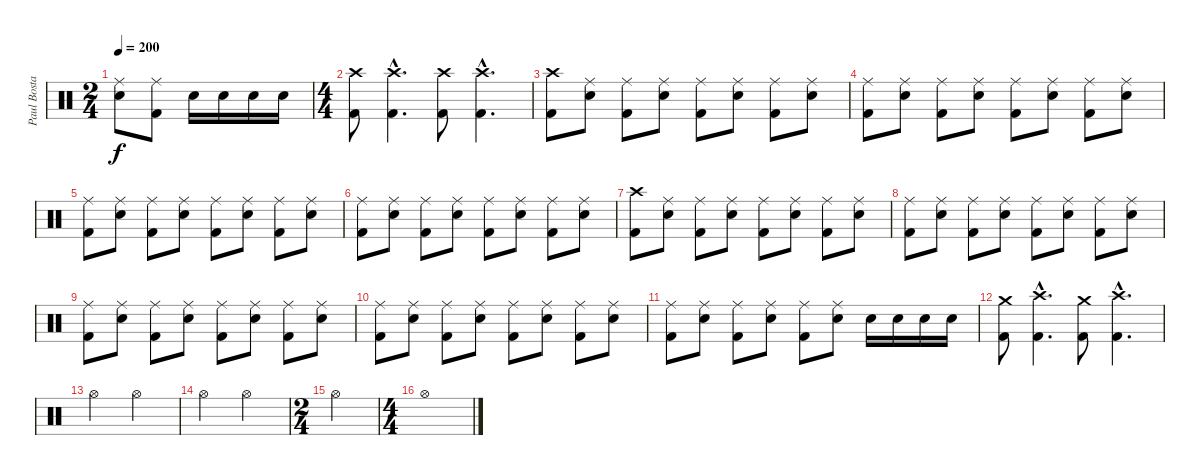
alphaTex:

\track ("Paul Bostaph" "Paul Bosta") {instrument percussion}
\staff {score}
\articulation defaults
\ts (2 4)
\tempo 200
\clef neutral
\ks c
("Electric Snare (hit)" "Ride (middle)").8{dy f} ("Kick (hit) 2" "Ride (middle)").8 "Electric Snare (hit)".16 "Electric Snare (hit)".16 "Electric Snare (hit)".16 "Electric Snare (hit)".16 |
\ts (4 4)
("Crash high (hit)" "Kick (hit) 2").8 ("Crash high (hit)"{hac} "Kick (hit) 2"{hac}).4{d} ("Crash high (hit)" "Kick (hit) 2").8 ("Crash high (hit)"{hac} "Kick (hit) 2"{hac}).4{d} |
("Kick (hit) 2" "Crash high (hit)").8 ("Electric Snare (hit)" "Ride (middle)").8 ("Kick (hit) 2" "Ride (middle)").8 ("Electric Snare (hit)" "Ride (middle)").8 ("Kick (hit) 2" "Ride (middle)").8 ("Electric Snare (hit)" "Ride (middle)").8 ("Kick (hit) 2" "Ride (middle)").8 ("Electric Snare (hit)" "Ride (middle)").8 |
("Kick (hit) 2" "Ride (middle)").8 ("Electric Snare (hit)" "Ride (middle)").8 ("Kick (hit) 2" "Ride (middle)").8 ("Electric Snare (hit)" "Ride (middle)").8 ("Kick (hit) 2" "Ride (middle)").8 ("Electric Snare (hit)" "Ride (middle)").8 ("Kick (hit) 2" "Ride (middle)").8 ("Electric Snare (hit)" "Ride (middle)").8 |
("Kick (hit) 2" "Ride (middle)").8 ("Electric Snare (hit)" "Ride (middle)").8 ("Kick (hit) 2" "Ride (middle)").8 ("Electric Snare (hit)" "Ride (middle)").8 ("Kick (hit) 2" "Ride (middle)").8 ("Electric Snare (hit)" "Ride (middle)").8 ("Kick (hit) 2" "Ride (middle)").8 ("Electric Snare (hit)" "Ride (middle)").8 |
("Kick (hit) 2" "Ride (middle)").8 ("Electric Snare (hit)" "Ride (middle)").8 ("Kick (hit) 2" "Ride (middle)").8 ("Electric Snare (hit)" "Ride (middle)").8 ("Kick (hit) 2" "Ride (middle)").8 ("Electric Snare (hit)" "Ride (middle)").8 ("Kick (hit) 2" "Ride (middle)").8 ("Electric Snare (hit)" "Ride (middle)").8 |
("Kick (hit) 2" "Crash high (hit)").8 ("Electric Snare (hit)" "Ride (middle)").8 ("Kick (hit) 2" "Ride (middle)").8 ("Electric Snare (hit)" "Ride (middle)").8 ("Kick (hit) 2" "Ride (middle)").8 ("Electric Snare (hit)" "Ride (middle)").8 ("Kick (hit) 2" "Ride (middle)").8 ("Electric Snare (hit)" "Ride (middle)").8 |
("Kick (hit) 2" "Ride (middle)").8 ("Electric Snare (hit)" "Ride (middle)").8 ("Kick (hit) 2" "Ride (middle)").8 ("Electric Snare (hit)" "Ride (middle)").8 ("Kick (hit) 2" "Ride (middle)").8 ("Electric Snare (hit)" "Ride (middle)").8 ("Kick (hit) 2" "Ride (middle)").8 ("Electric Snare (hit)" "Ride (middle)").8 |
("Kick (hit) 2" "Ride (middle)").8 ("Electric Snare (hit)" "Ride (middle)").8 ("Kick (hit) 2" "Ride (middle)").8 ("Electric Snare (hit)" "Ride (middle)").8 ("Kick (hit) 2" "Ride (middle)").8 ("Electric Snare (hit)" "Ride (middle)").8 ("Kick (hit) 2" "Ride (middle)").8 ("Electric Snare (hit)" "Ride (middle)").8 |
("Kick (hit) 2" "Ride (middle)").8 ("Electric Snare (hit)" "Ride (middle)").8 ("Kick (hit) 2" "Ride (middle)").8 ("Electric Snare (hit)" "Ride (middle)").8 ("Kick (hit) 2" "Ride (middle)").8 ("Electric Snare (hit)" "Ride (middle)").8 ("Kick (hit) 2" "Ride (middle)").8 ("Electric Snare (hit)" "Ride (middle)").8 |
("Kick (hit) 2" "Ride (middle)").8 ("Electric Snare (hit)" "Ride (middle)").8 ("Kick (hit) 2" "Ride (middle)").8 ("Electric Snare (hit)" "Ride (middle)").8 ("Kick (hit) 2" "Ride (middle)").8 ("Electric Snare (hit)" "Ride (middle)").8 "Electric Snare (hit)".16 "Electric Snare (hit)".16 "Electric Snare (hit)".16 "Electric Snare (hit)".16 |
("Crash medium (hit)" "Kick (hit) 2").8 ("Crash high (hit)"{hac} "Kick (hit) 2"{hac}).4{d} ("Crash medium (hit)" "Kick (hit) 2").8 ("Crash high (hit)"{hac} "Kick (hit) 2"{hac}).4{d} |
"Hi-Hat (open)".2 "Hi-Hat (open)".2 |
"Hi-Hat (open)".2 "Hi-Hat (open)".2 |
\ts (2 4)
"Hi-Hat (open)".2 |
\ts (4 4)
"Hi-Hat (open)".1
